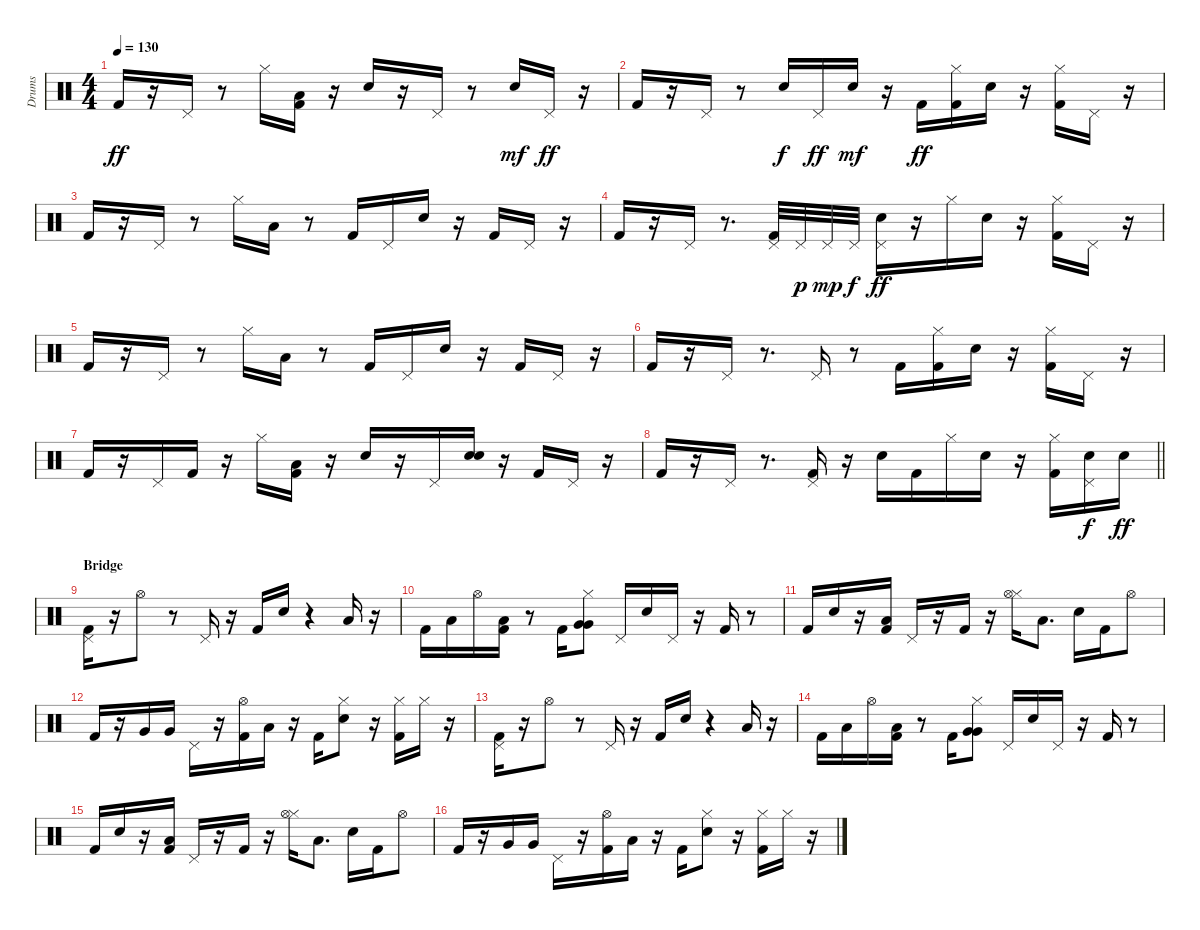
\track ("Drums" "Drums") {instrument percussion}
\staff {score}
\articulation defaults
\ts (4 4)
\tempo 130
\clef neutral
\ks c "Kick (hit) 2".16{dy ff}
r.16 "Pedal Hi-Hat (hit)".16 r.8 "Hi-Hat (closed)".16 ("Kick (hit) 2" "Low Floor Tom (hit)").16 r.16 "Electric Snare (hit)".16 r.16 "Pedal Hi-Hat (hit)".16 r.8 "Snare (hit) 2".16{dy mf} "Pedal Hi-Hat (hit)".16{dy ff} r.16 |
"Kick (hit) 2".16 r.16 "Pedal Hi-Hat (hit)".16 r.8 "Snare (hit) 2".16{dy f} "Pedal Hi-Hat (hit)".16{dy ff} "Snare (hit) 2".16{dy mf} r.16 "Kick (hit) 2".16{dy ff} ("Kick (hit) 2" "Hi-Hat (closed)").16 "Electric Snare (hit)".16 r.16 ("Kick (hit) 2" "Hi-Hat (closed)").16 "Pedal Hi-Hat (hit)".16 r.16 |
"Kick (hit) 2".16 r.16 "Pedal Hi-Hat (hit)".16 r.8 "Hi-Hat (closed)".16 "Low Floor Tom (hit)".16 r.8 "Kick (hit) 2".16 "Pedal Hi-Hat (hit)".16 "Electric Snare (hit)".16 r.16 "Kick (hit) 2".16 "Pedal Hi-Hat (hit)".16 r.16 |
"Kick (hit) 2".16 r.16 "Pedal Hi-Hat (hit)".16 r.8{d} ("Kick (hit) 2" "Pedal Hi-Hat (hit)").32 "Pedal Hi-Hat (hit)".32{dy p} "Pedal Hi-Hat (hit)".32{dy mp} "Pedal Hi-Hat (hit)".32{dy f} ("Electric Snare (hit)" "Pedal Hi-Hat (hit)").16{dy ff} r.16 "Hi-Hat (closed)".16 "Electric Snare (hit)".16 r.16 ("Kick (hit) 2" "Hi-Hat (closed)").16 "Pedal Hi-Hat (hit)".16 r.16 |
"Kick (hit) 2".16 r.16 "Pedal Hi-Hat (hit)".16 r.8 "Hi-Hat (closed)".16 "Low Floor Tom (hit)".16 r.8 "Kick (hit) 2".16 "Pedal Hi-Hat (hit)".16 "Electric Snare (hit)".16 r.16 "Kick (hit) 2".16 "Pedal Hi-Hat (hit)".16 r.16 |
"Kick (hit) 2".16 r.16 "Pedal Hi-Hat (hit)".16 r.8{d} "Pedal Hi-Hat (hit)".16 r.8 "Kick (hit) 2".16 ("Kick (hit) 2" "Hi-Hat (closed)").16 "Electric Snare (hit)".16 r.16 ("Kick (hit) 2" "Hi-Hat (closed)").16 "Pedal Hi-Hat (hit)".16 r.16 |
"Kick (hit) 2".16 r.16 "Pedal Hi-Hat (hit)".16 "Kick (hit) 2".16 r.16 "Hi-Hat (closed)".16 ("Kick (hit) 2" "Low Floor Tom (hit)").16 r.16 "Electric Snare (hit)".16 r.16 "Pedal Hi-Hat (hit)".16 ("Snare (hit) 2" "Hand Clap (hit)").16 r.16 "Kick (hit) 2".16 "Pedal Hi-Hat (hit)".16 r.16 |
\barLineRight lightlight "Kick (hit) 2".16
r.16 "Pedal Hi-Hat (hit)".16 r.8{d} ("Kick (hit) 2" "Pedal Hi-Hat (hit)").16 r.16 "Electric Snare (hit)".16 "Kick (hit) 2".16 "Hi-Hat (closed)".16 "Electric Snare (hit)".16 r.16 ("Kick (hit) 2" "Hi-Hat (closed)").16 ("Electric Snare (hit)" "Pedal Hi-Hat (hit)").16{dy f} "Electric Snare (hit)".16{dy ff} |
\section ("" "Bridge")
("Kick (hit) 2" "Pedal Hi-Hat (hit)").16 r.16 "Hi-Hat (open)".8 r.8 "Pedal Hi-Hat (hit)".16 r.16 "Kick (hit) 2".16 "Electric Snare (hit)".16 r.4 "Low Tom (hit)".16 r.16 |
"Kick (hit) 2".16 "Low Floor Tom (hit)".16 "Hi-Hat (open)".16 ("Kick (hit) 2" "Low Tom (hit)").16 r.8 "Kick (hit) 2".16 ("Hi-Hat (closed)" "Very Low Tom (hit)" "Very Low Tom (hit)").8 "Pedal Hi-Hat (hit)".16 "Electric Snare (hit)".16 "Pedal Hi-Hat (hit)".16 r.16 "Kick (hit) 2".16 r.8 |
"Kick (hit) 2".16 "Snare (hit) 2".16 r.16 ("Kick (hit) 2" "Low Floor Tom (hit)").16 "Pedal Hi-Hat (hit)".16 r.16 "Kick (hit) 2".16 r.16 ("Hi-Hat (closed)" "Hi-Hat (open)").16 "Low Tom (hit)".8{d} "Electric Snare (hit)".16 "Kick (hit) 2".16 "Hi-Hat (open)".8 |
"Kick (hit) 2".16 r.16 "Very Low Tom (hit)".16 "Very Low Tom (hit)".16 "Pedal Hi-Hat (hit)".16 r.16 ("Kick (hit) 2" "Hi-Hat (open)").16 "Low Tom (hit)".16 r.16 "Kick (hit) 2".16 ("Electric Snare (hit)" "Hi-Hat (closed)").8 r.16 ("Kick (hit) 2" "Hi-Hat (closed)").16 "Hi-Hat (closed)".16 r.16 |
("Kick (hit) 2" "Pedal Hi-Hat (hit)").16 r.16 "Hi-Hat (open)".8 r.8 "Pedal Hi-Hat (hit)".16 r.16 "Kick (hit) 2".16 "Electric Snare (hit)".16 r.4 "Low Tom (hit)".16 r.16 |
"Kick (hit) 2".16 "Low Floor Tom (hit)".16 "Hi-Hat (open)".16 ("Kick (hit) 2" "Low Tom (hit)").16 r.8 "Kick (hit) 2".16 ("Hi-Hat (closed)" "Very Low Tom (hit)" "Very Low Tom (hit)").8 "Pedal Hi-Hat (hit)".16 "Electric Snare (hit)".16 "Pedal Hi-Hat (hit)".16 r.16 "Kick (hit) 2".16 r.8 |
"Kick (hit) 2".16 "Snare (hit) 2".16 r.16 ("Kick (hit) 2" "Low Floor Tom (hit)").16 "Pedal Hi-Hat (hit)".16 r.16 "Kick (hit) 2".16 r.16 ("Hi-Hat (closed)" "Hi-Hat (open)").16 "Low Tom (hit)".8{d} "Electric Snare (hit)".16 "Kick (hit) 2".16 "Hi-Hat (open)".8 |
"Kick (hit) 2".16 r.16 "Very Low Tom (hit)".16 "Very Low Tom (hit)".16 "Pedal Hi-Hat (hit)".16 r.16 ("Kick (hit) 2" "Hi-Hat (open)").16 "Low Tom (hit)".16 r.16 "Kick (hit) 2".16 ("Electric Snare (hit)" "Hi-Hat (closed)").8 r.16 ("Kick (hit) 2" "Hi-Hat (closed)").16 "Hi-Hat (closed)".16 r.16
